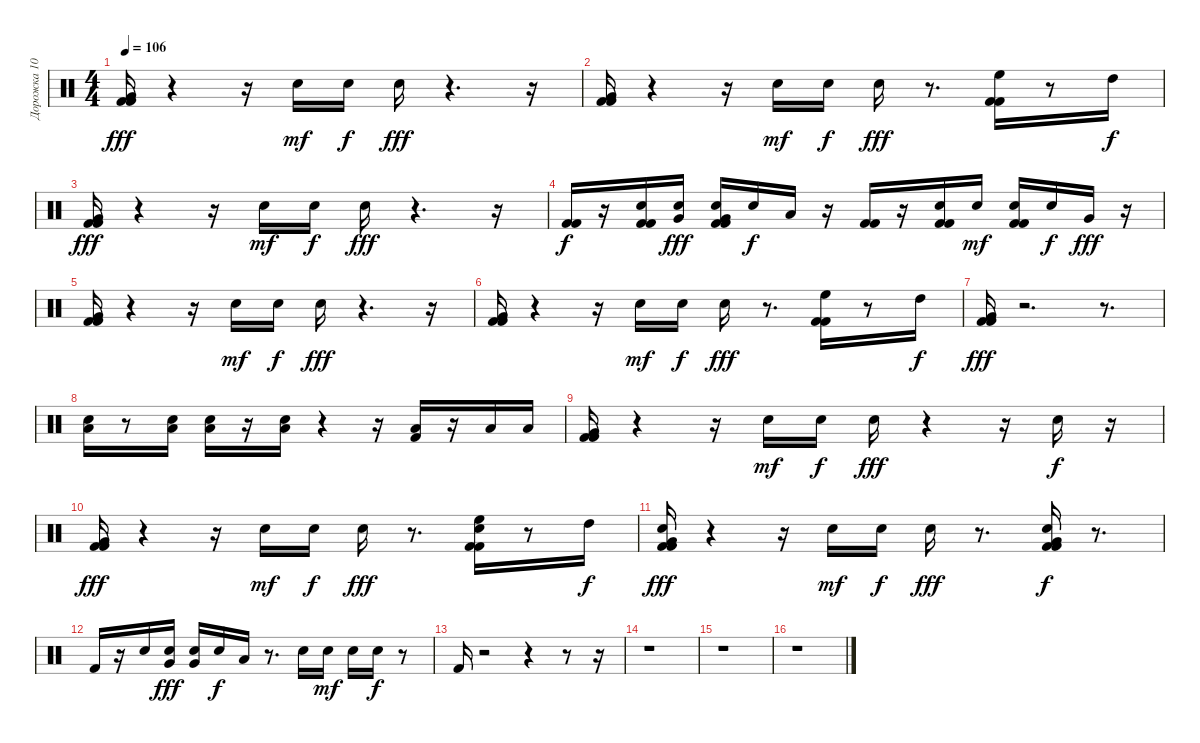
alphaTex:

\track ("Дорожка 10" "Дорожка 10") {instrument percussion}
\staff {score}
\articulation defaults
\ts (4 4)
\tempo 106
\clef neutral
\ks c
("Kick (hit) 2" "Kick (hit) 2" "Very Low Tom (hit)").16{dy fff} r.4 r.16 "Snare (hit) 2".16{dy mf} "Snare (hit) 2".16{dy f} "Snare (hit) 2".16{dy fff} r.4{d} r.16 |
("Kick (hit) 2" "Kick (hit) 2" "Very Low Tom (hit)").16 r.4 r.16 "Snare (hit) 2".16{dy mf} "Snare (hit) 2".16{dy f} "Snare (hit) 2".16{dy fff} r.8{d} ("Kick (hit) 2" "Kick (hit) 2" "High Floor Tom (hit)").16 r.8 "High Tom (hit)".16{dy f} |
("Kick (hit) 2" "Kick (hit) 2" "Very Low Tom (hit)").16{dy fff} r.4 r.16 "Snare (hit) 2".16{dy mf} "Snare (hit) 2".16{dy f} "Snare (hit) 2".16{dy fff} r.4{d} r.16 |
("Kick (hit) 2" "Kick (hit) 2").16{dy f} r.16 ("Kick (hit) 2" "Kick (hit) 2" "Snare (hit) 2").16 ("Snare (hit) 2" "Very Low Tom (hit)").16{dy fff} ("Kick (hit) 2" "Kick (hit) 2" "Snare (hit) 2" "Very Low Tom (hit)").16 "Snare (hit) 2".16{dy f} "Low Tom (hit)".16 r.16 ("Kick (hit) 2" "Kick (hit) 2").16 r.16 ("Kick (hit) 2" "Kick (hit) 2" "Snare (hit) 2").16 "Snare (hit) 2".16{dy mf} ("Kick (hit) 2" "Kick (hit) 2" "Snare (hit) 2").16 "Snare (hit) 2".16{dy f} "Very Low Tom (hit)".16{dy fff} r.16 |
("Kick (hit) 2" "Kick (hit) 2" "Very Low Tom (hit)").16 r.4 r.16 "Snare (hit) 2".16{dy mf} "Snare (hit) 2".16{dy f} "Snare (hit) 2".16{dy fff} r.4{d} r.16 |
("Kick (hit) 2" "Kick (hit) 2" "Very Low Tom (hit)").16 r.4 r.16 "Snare (hit) 2".16{dy mf} "Snare (hit) 2".16{dy f} "Snare (hit) 2".16{dy fff} r.8{d} ("Kick (hit) 2" "Kick (hit) 2" "High Floor Tom (hit)").16 r.8 "High Tom (hit)".16{dy f} |
("Kick (hit) 2" "Kick (hit) 2" "Very Low Tom (hit)").16{dy fff} r.2{d} r.8{d} |
("Snare (hit) 2" "Low Floor Tom (hit)").16 r.8 ("Snare (hit) 2" "Low Floor Tom (hit)").16 ("Snare (hit) 2" "Low Floor Tom (hit)").16 r.16 ("Snare (hit) 2" "Low Floor Tom (hit)").16 r.4 r.16 ("Kick (hit) 2" "Low Floor Tom (hit)").16 r.16 "Low Floor Tom (hit)".16 "Low Floor Tom (hit)".16 |
("Kick (hit) 2" "Kick (hit) 2" "Very Low Tom (hit)").16 r.4 r.16 "Snare (hit) 2".16{dy mf} "Snare (hit) 2".16{dy f} "Snare (hit) 2".16{dy fff} r.4 r.16 "Snare (hit) 2".16{dy f} r.16 |
("Kick (hit) 2" "Kick (hit) 2" "Very Low Tom (hit)").16{dy fff} r.4 r.16 "Snare (hit) 2".16{dy mf} "Snare (hit) 2".16{dy f} "Snare (hit) 2".16{dy fff} r.8{d} ("Kick (hit) 2" "Kick (hit) 2" "Snare (hit) 2" "High Floor Tom (hit)").16 r.8 "High Tom (hit)".16{dy f} |
("Kick (hit) 2" "Kick (hit) 2" "Snare (hit) 2" "Very Low Tom (hit)").16{dy fff} r.4 r.16 "Snare (hit) 2".16{dy mf} "Snare (hit) 2".16{dy f} "Snare (hit) 2".16{dy fff} r.8{d} ("Kick (hit) 2" "Kick (hit) 2" "Snare (hit) 2" "Very Low Tom (hit)").16{dy f} r.8{d} |
"Kick (hit) 2".16 r.16 "Snare (hit) 2".16 ("Snare (hit) 2" "Very Low Tom (hit)").16{dy fff} ("Snare (hit) 2" "Very Low Tom (hit)").16 "Snare (hit) 2".16{dy f} "Low Tom (hit)".16 r.8{d} "Snare (hit) 2".16 "Snare (hit) 2".16{dy mf} "Snare (hit) 2".16 "Snare (hit) 2".16{dy f} r.8 |
"Kick (hit) 2".16 r.2 r.4 r.8 r.16 |
r.1 |
r.1 |
r.1
